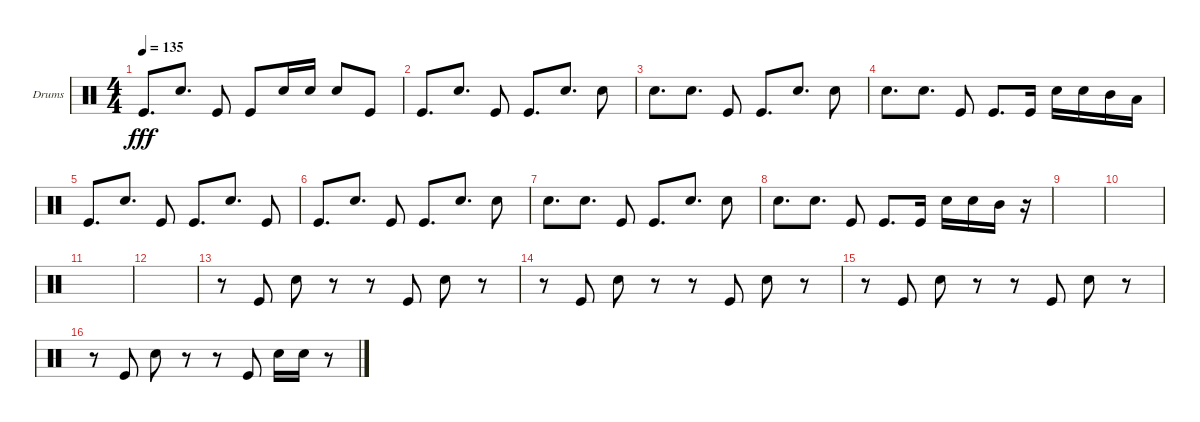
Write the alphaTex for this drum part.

\defaultSystemsLayout 4
\bracketExtendMode groupsimilarinstruments
\firstSystemTrackNameOrientation horizontal
\otherSystemsTrackNameOrientation horizontal
\track ("Matt Helders" "Drums") {instrument percussion}
\staff {score}
\articulation defaults
\ts (4 4)
\tempo 135
\clef neutral
\ks c "Kick (hit)".8{d dy fff} "Snare (hit) 2".8{d} "Kick (hit)".8 "Kick (hit)".8 "Snare (hit) 2".16 "Snare (hit) 2".16 "Snare (hit) 2".8 "Kick (hit)".8
|
"Kick (hit)".8{d} "Snare (hit) 2".8{d} "Kick (hit)".8 "Kick (hit)".8{d} "Snare (hit) 2".8{d} "Snare (hit) 2".8 |
"Snare (hit) 2".8{d} "Snare (hit) 2".8{d} "Kick (hit)".8 "Kick (hit)".8{d} "Snare (hit) 2".8{d} "Snare (hit) 2".8 |
"Snare (hit) 2".8{d} "Snare (hit) 2".8{d} "Kick (hit)".8 "Kick (hit)".8{d} "Kick (hit)".16 "Snare (hit) 2".16 "Snare (hit) 2".16 "Mid Tom (hit)".16 "Low Tom (hit)".16 |
"Kick (hit)".8{d} "Snare (hit) 2".8{d} "Kick (hit)".8 "Kick (hit)".8{d} "Snare (hit) 2".8{d} "Kick (hit)".8 |
"Kick (hit)".8{d} "Snare (hit) 2".8{d} "Kick (hit)".8 "Kick (hit)".8{d} "Snare (hit) 2".8{d} "Snare (hit) 2".8 |
"Snare (hit) 2".8{d} "Snare (hit) 2".8{d} "Kick (hit)".8 "Kick (hit)".8{d} "Snare (hit) 2".8{d} "Snare (hit) 2".8 |
"Snare (hit) 2".8{d} "Snare (hit) 2".8{d} "Kick (hit)".8 "Kick (hit)".8{d} "Kick (hit)".16 "Snare (hit) 2".16 "Snare (hit) 2".16 "Mid Tom (hit)".16 r.16 |
|
|
|
|
r.8 "Kick (hit)".8 "Snare (hit) 2".8 r.8 r.8 "Kick (hit)".8 "Snare (hit) 2".8 r.8 |
r.8 "Kick (hit)".8 "Snare (hit) 2".8 r.8 r.8 "Kick (hit)".8 "Snare (hit) 2".8 r.8 |
r.8 "Kick (hit)".8 "Snare (hit) 2".8 r.8 r.8 "Kick (hit)".8 "Snare (hit) 2".8 r.8 |
r.8 "Kick (hit)".8 "Snare (hit) 2".8 r.8 r.8 "Kick (hit)".8 "Snare (hit) 2".16 "Snare (hit) 2".16 r.8
